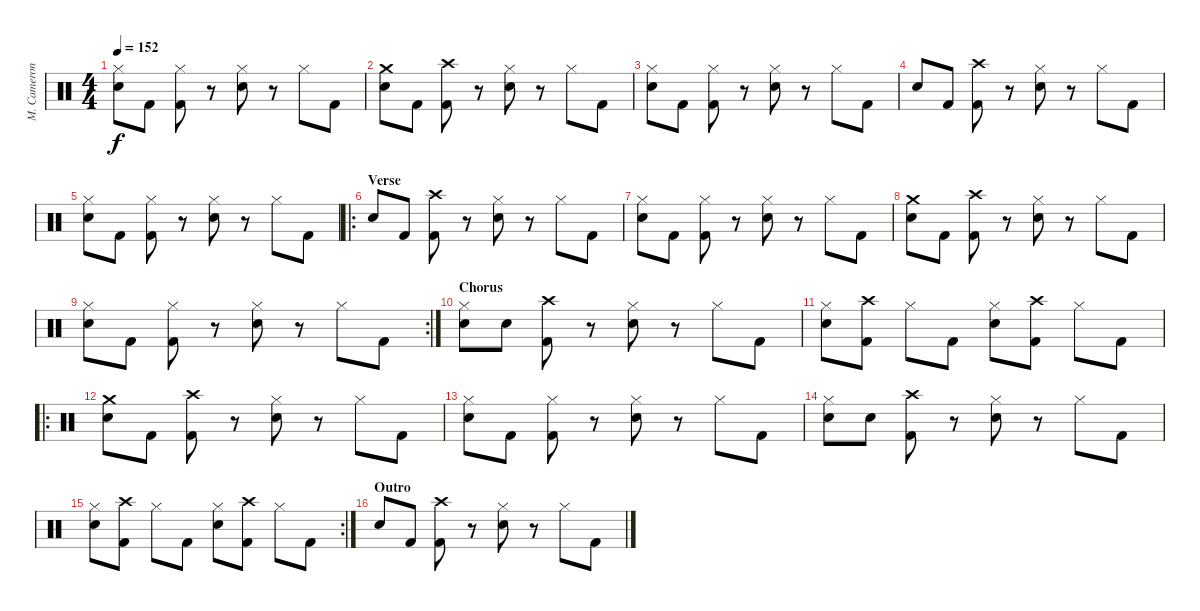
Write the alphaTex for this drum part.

\track ("M. Cameron" "M. Cameron") {instrument percussion}
\staff {score}
\articulation defaults
\ts (4 4)
\tempo 152
\clef neutral
\ks c
("Hi-Hat (closed)" "Snare (hit) 2").8{dy f} "Kick (hit) 2".8 ("Hi-Hat (closed)" "Kick (hit) 2").8 r.8 ("Hi-Hat (closed)" "Snare (hit) 2").8 r.8 "Hi-Hat (closed)".8 "Kick (hit) 2".8 |
("Crash medium (hit)" "Snare (hit) 2").8 "Kick (hit) 2".8 ("Crash high (hit)" "Kick (hit) 2").8 r.8 ("Hi-Hat (closed)" "Snare (hit) 2").8 r.8 "Hi-Hat (closed)".8 "Kick (hit) 2".8 |
("Hi-Hat (closed)" "Snare (hit) 2").8 "Kick (hit) 2".8 ("Hi-Hat (closed)" "Kick (hit) 2").8 r.8 ("Hi-Hat (closed)" "Snare (hit) 2").8 r.8 "Hi-Hat (closed)".8 "Kick (hit) 2".8 |
"Snare (hit) 2".8 "Kick (hit) 2".8 ("Crash high (hit)" "Kick (hit) 2").8 r.8 ("Hi-Hat (closed)" "Snare (hit) 2").8 r.8 "Hi-Hat (closed)".8 "Kick (hit) 2".8 |
("Hi-Hat (closed)" "Snare (hit) 2").8 "Kick (hit) 2".8 ("Hi-Hat (closed)" "Kick (hit) 2").8 r.8 ("Hi-Hat (closed)" "Snare (hit) 2").8 r.8 "Hi-Hat (closed)".8 "Kick (hit) 2".8 |
\ro
\section ("" "Verse")
"Snare (hit) 2".8 "Kick (hit) 2".8 ("Crash high (hit)" "Kick (hit) 2").8 r.8 ("Hi-Hat (closed)" "Snare (hit) 2").8 r.8 "Hi-Hat (closed)".8 "Kick (hit) 2".8 |
("Hi-Hat (closed)" "Snare (hit) 2").8 "Kick (hit) 2".8 ("Hi-Hat (closed)" "Kick (hit) 2").8 r.8 ("Hi-Hat (closed)" "Snare (hit) 2").8 r.8 "Hi-Hat (closed)".8 "Kick (hit) 2".8 |
("Crash medium (hit)" "Snare (hit) 2").8 "Kick (hit) 2".8 ("Crash high (hit)" "Kick (hit) 2").8 r.8 ("Hi-Hat (closed)" "Snare (hit) 2").8 r.8 "Hi-Hat (closed)".8 "Kick (hit) 2".8 |
\rc 2
("Hi-Hat (closed)" "Snare (hit) 2").8 "Kick (hit) 2".8 ("Hi-Hat (closed)" "Kick (hit) 2").8 r.8 ("Hi-Hat (closed)" "Snare (hit) 2").8 r.8 "Hi-Hat (closed)".8 "Kick (hit) 2".8 |
\section ("" "Chorus")
("Hi-Hat (closed)" "Snare (hit) 2").8 "Snare (hit) 2".8 ("Crash high (hit)" "Kick (hit) 2").8 r.8 ("Hi-Hat (closed)" "Snare (hit) 2").8 r.8 "Hi-Hat (closed)".8 "Kick (hit) 2".8 |
("Hi-Hat (closed)" "Snare (hit) 2").8 ("Crash high (hit)" "Kick (hit) 2").8 "Hi-Hat (closed)".8 "Kick (hit) 2".8 ("Hi-Hat (closed)" "Snare (hit) 2").8 ("Crash high (hit)" "Kick (hit) 2").8 "Hi-Hat (closed)".8 "Kick (hit) 2".8 |
\ro
("Crash medium (hit)" "Snare (hit) 2").8 "Kick (hit) 2".8 ("Crash high (hit)" "Kick (hit) 2").8 r.8 ("Hi-Hat (closed)" "Snare (hit) 2").8 r.8 "Hi-Hat (closed)".8 "Kick (hit) 2".8 |
("Hi-Hat (closed)" "Snare (hit) 2").8 "Kick (hit) 2".8 ("Hi-Hat (closed)" "Kick (hit) 2").8 r.8 ("Hi-Hat (closed)" "Snare (hit) 2").8 r.8 "Hi-Hat (closed)".8 "Kick (hit) 2".8 |
("Hi-Hat (closed)" "Snare (hit) 2").8 "Snare (hit) 2".8 ("Crash high (hit)" "Kick (hit) 2").8 r.8 ("Hi-Hat (closed)" "Snare (hit) 2").8 r.8 "Hi-Hat (closed)".8 "Kick (hit) 2".8 |
\rc 2
("Hi-Hat (closed)" "Snare (hit) 2").8 ("Crash high (hit)" "Kick (hit) 2").8 "Hi-Hat (closed)".8 "Kick (hit) 2".8 ("Hi-Hat (closed)" "Snare (hit) 2").8 ("Crash high (hit)" "Kick (hit) 2").8 "Hi-Hat (closed)".8 "Kick (hit) 2".8 |
\section ("" "Outro")
"Snare (hit) 2".8 "Kick (hit) 2".8 ("Crash high (hit)" "Kick (hit) 2").8 r.8 ("Hi-Hat (closed)" "Snare (hit) 2").8 r.8 "Hi-Hat (closed)".8 "Kick (hit) 2".8
